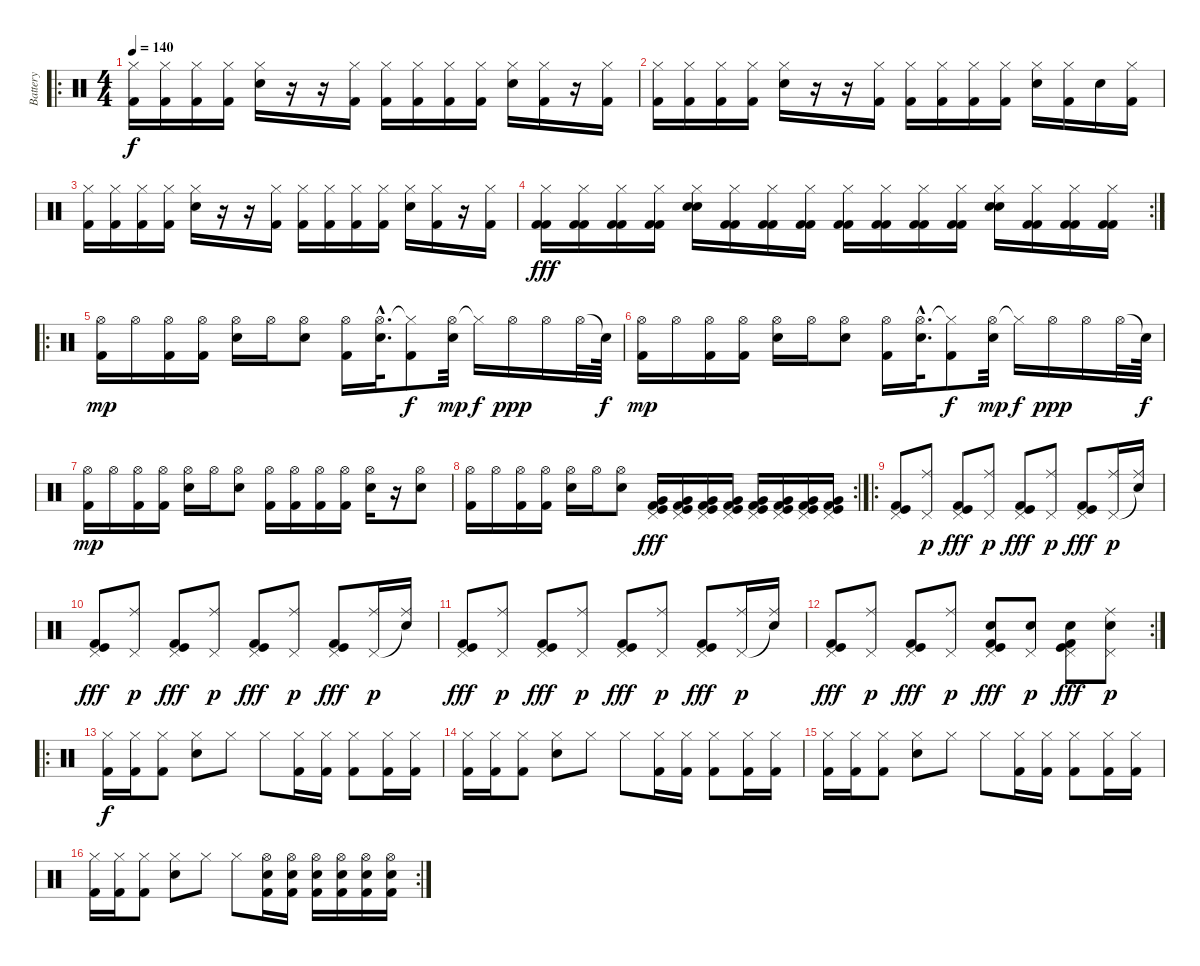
\track ("Battery" "Battery") {instrument percussion}
\staff {score}
\articulation defaults
\ro
\ts (4 4)
\tempo 140
\clef neutral
\ks c
("Hi-Hat (closed)" "Kick (hit) 2").16{dy f} ("Hi-Hat (closed)" "Kick (hit) 2").16 ("Hi-Hat (closed)" "Kick (hit) 2").16 ("Hi-Hat (closed)" "Kick (hit) 2").16 ("Hi-Hat (closed)" "Electric Snare (hit)").16 r.16 r.16 ("Hi-Hat (closed)" "Kick (hit) 2").16 ("Hi-Hat (closed)" "Kick (hit) 2").16 ("Hi-Hat (closed)" "Kick (hit) 2").16 ("Hi-Hat (closed)" "Kick (hit) 2").16 ("Hi-Hat (closed)" "Kick (hit) 2").16 ("Hi-Hat (closed)" "Electric Snare (hit)").16 ("Hi-Hat (closed)" "Kick (hit) 2").16 r.16 ("Hi-Hat (closed)" "Kick (hit) 2").16 |
("Hi-Hat (closed)" "Kick (hit) 2").16 ("Hi-Hat (closed)" "Kick (hit) 2").16 ("Hi-Hat (closed)" "Kick (hit) 2").16 ("Hi-Hat (closed)" "Kick (hit) 2").16 ("Hi-Hat (closed)" "Electric Snare (hit)").16 r.16 r.16 ("Hi-Hat (closed)" "Kick (hit) 2").16 ("Hi-Hat (closed)" "Kick (hit) 2").16 ("Hi-Hat (closed)" "Kick (hit) 2").16 ("Hi-Hat (closed)" "Kick (hit) 2").16 ("Hi-Hat (closed)" "Kick (hit) 2").16 ("Hi-Hat (closed)" "Electric Snare (hit)").16 ("Hi-Hat (closed)" "Kick (hit) 2").16 "Electric Snare (hit)".16 ("Hi-Hat (closed)" "Kick (hit) 2").16 |
("Hi-Hat (closed)" "Kick (hit) 2").16 ("Hi-Hat (closed)" "Kick (hit) 2").16 ("Hi-Hat (closed)" "Kick (hit) 2").16 ("Hi-Hat (closed)" "Kick (hit) 2").16 ("Hi-Hat (closed)" "Electric Snare (hit)").16 r.16 r.16 ("Hi-Hat (closed)" "Kick (hit) 2").16 ("Hi-Hat (closed)" "Kick (hit) 2").16 ("Hi-Hat (closed)" "Kick (hit) 2").16 ("Hi-Hat (closed)" "Kick (hit) 2").16 ("Hi-Hat (closed)" "Kick (hit) 2").16 ("Hi-Hat (closed)" "Electric Snare (hit)").16 ("Hi-Hat (closed)" "Kick (hit) 2").16 r.16 ("Hi-Hat (closed)" "Kick (hit) 2").16 |
\rc 2
("Hi-Hat (closed)" "Kick (hit) 2" "Kick (hit) 2").16{dy fff} ("Hi-Hat (closed)" "Kick (hit) 2" "Kick (hit) 2").16 ("Hi-Hat (closed)" "Kick (hit) 2" "Kick (hit) 2").16 ("Hi-Hat (closed)" "Kick (hit) 2" "Kick (hit) 2").16 ("Hi-Hat (closed)" "Electric Snare (hit)" "Electric Snare (hit)").16 ("Hi-Hat (closed)" "Kick (hit) 2" "Kick (hit) 2").16 ("Hi-Hat (closed)" "Kick (hit) 2" "Kick (hit) 2").16 ("Hi-Hat (closed)" "Kick (hit) 2" "Kick (hit) 2").16 ("Hi-Hat (closed)" "Kick (hit) 2" "Kick (hit) 2").16 ("Hi-Hat (closed)" "Kick (hit) 2" "Kick (hit) 2").16 ("Hi-Hat (closed)" "Kick (hit) 2" "Kick (hit) 2").16 ("Hi-Hat (closed)" "Kick (hit) 2" "Kick (hit) 2").16 ("Hi-Hat (closed)" "Electric Snare (hit)" "Electric Snare (hit)").16 ("Hi-Hat (closed)" "Kick (hit) 2" "Kick (hit) 2").16 ("Hi-Hat (closed)" "Kick (hit) 2" "Kick (hit) 2").16 ("Hi-Hat (closed)" "Kick (hit) 2" "Kick (hit) 2").16 |
\ro
("Hi-Hat (open)" "Kick (hit) 2").16{dy mp} "Hi-Hat (open)".16 ("Hi-Hat (open)" "Kick (hit) 2").16 ("Hi-Hat (open)" "Kick (hit) 2").16 ("Hi-Hat (open)" "Electric Snare (hit)").16 "Hi-Hat (open)".16 ("Hi-Hat (open)" "Electric Snare (hit)").8 ("Hi-Hat (open)" "Kick (hit) 2").16 ("Hi-Hat (open)"{hac} "Electric Snare (hit)"{hac}).32{d} ("Hi-Hat (closed)"{t} "Kick (hit) 2").8{dy f} ("Hi-Hat (open)" "Electric Snare (hit)").32{dy mp} "Hi-Hat (closed)"{t}.16{dy f} "Hi-Hat (open)".16{dy ppp} "Hi-Hat (open)".16 "Hi-Hat (open)".32 "Snare (hit)"{t}.64{dy f} |
("Hi-Hat (open)" "Kick (hit) 2").16{dy mp} "Hi-Hat (open)".16 ("Hi-Hat (open)" "Kick (hit) 2").16 ("Hi-Hat (open)" "Kick (hit) 2").16 ("Hi-Hat (open)" "Electric Snare (hit)").16 "Hi-Hat (open)".16 ("Hi-Hat (open)" "Electric Snare (hit)").8 ("Hi-Hat (open)" "Kick (hit) 2").16 ("Hi-Hat (open)"{hac} "Electric Snare (hit)"{hac}).32{d} ("Hi-Hat (closed)"{t} "Kick (hit) 2").8{dy f} ("Hi-Hat (open)" "Electric Snare (hit)").32{dy mp} "Hi-Hat (closed)"{t}.16{dy f} "Hi-Hat (open)".16{dy ppp} "Hi-Hat (open)".16 "Hi-Hat (open)".32 "Snare (hit)"{t}.64{dy f} |
("Hi-Hat (open)" "Kick (hit) 2").16{dy mp} "Hi-Hat (open)".16 ("Hi-Hat (open)" "Kick (hit) 2").16 ("Hi-Hat (open)" "Kick (hit) 2").16 ("Hi-Hat (open)" "Electric Snare (hit)").16 "Hi-Hat (open)".16 ("Hi-Hat (open)" "Electric Snare (hit)").8 ("Hi-Hat (open)" "Kick (hit) 2").16 ("Hi-Hat (open)" "Kick (hit) 2").16 ("Hi-Hat (open)" "Kick (hit) 2").16 ("Hi-Hat (open)" "Kick (hit) 2").16 ("Hi-Hat (open)" "Electric Snare (hit)").16 r.16 ("Hi-Hat (open)" "Electric Snare (hit)").8 |
\rc 2
("Hi-Hat (open)" "Kick (hit) 2").16 "Hi-Hat (open)".16 ("Hi-Hat (open)" "Kick (hit) 2").16 ("Hi-Hat (open)" "Kick (hit) 2").16 ("Hi-Hat (open)" "Electric Snare (hit)").16 "Hi-Hat (open)".16 ("Hi-Hat (open)" "Electric Snare (hit)").8 ("Pedal Hi-Hat (hit)" "Kick (hit) 2" "Kick (hit)" "Very Low Tom (hit)").16{dy fff} ("Pedal Hi-Hat (hit)" "Kick (hit) 2" "Kick (hit)" "Very Low Tom (hit)").16 ("Pedal Hi-Hat (hit)" "Kick (hit) 2" "Kick (hit)" "Very Low Tom (hit)").16 ("Pedal Hi-Hat (hit)" "Kick (hit) 2" "Kick (hit)" "Very Low Tom (hit)").16 ("Pedal Hi-Hat (hit)" "Kick (hit) 2" "Kick (hit)" "Very Low Tom (hit)").16 ("Pedal Hi-Hat (hit)" "Kick (hit) 2" "Kick (hit)" "Very Low Tom (hit)").16 ("Pedal Hi-Hat (hit)" "Kick (hit) 2" "Kick (hit)" "Very Low Tom (hit)").16 ("Pedal Hi-Hat (hit)" "Kick (hit) 2" "Kick (hit)" "Very Low Tom (hit)").16 |
\ro
("Pedal Hi-Hat (hit)" "Kick (hit)" "Kick (hit) 2").8 ("Ride (middle)" "Pedal Hi-Hat (hit)").8{dy p} ("Pedal Hi-Hat (hit)" "Kick (hit)" "Kick (hit) 2").8{dy fff} ("Ride (middle)" "Pedal Hi-Hat (hit)").8{dy p} ("Pedal Hi-Hat (hit)" "Kick (hit)" "Kick (hit) 2").8{dy fff} ("Ride (middle)" "Pedal Hi-Hat (hit)").8{dy p} ("Pedal Hi-Hat (hit)" "Kick (hit)" "Kick (hit) 2").8{dy fff} ("Ride (middle)" "Pedal Hi-Hat (hit)").16{dy p} ("Ride (middle)" "Snare (hit)"{t}).16 |
("Pedal Hi-Hat (hit)" "Kick (hit)" "Kick (hit) 2").8{dy fff} ("Ride (middle)" "Pedal Hi-Hat (hit)").8{dy p} ("Pedal Hi-Hat (hit)" "Kick (hit)" "Kick (hit) 2").8{dy fff} ("Ride (middle)" "Pedal Hi-Hat (hit)").8{dy p} ("Pedal Hi-Hat (hit)" "Kick (hit)" "Kick (hit) 2").8{dy fff} ("Ride (middle)" "Pedal Hi-Hat (hit)").8{dy p} ("Pedal Hi-Hat (hit)" "Kick (hit)" "Kick (hit) 2").8{dy fff} ("Ride (middle)" "Pedal Hi-Hat (hit)").16{dy p} ("Ride (middle)" "Snare (hit)"{t}).16 |
("Pedal Hi-Hat (hit)" "Kick (hit)" "Kick (hit) 2").8{dy fff} ("Ride (middle)" "Pedal Hi-Hat (hit)").8{dy p} ("Pedal Hi-Hat (hit)" "Kick (hit)" "Kick (hit) 2").8{dy fff} ("Ride (middle)" "Pedal Hi-Hat (hit)").8{dy p} ("Pedal Hi-Hat (hit)" "Kick (hit)" "Kick (hit) 2").8{dy fff} ("Ride (middle)" "Pedal Hi-Hat (hit)").8{dy p} ("Pedal Hi-Hat (hit)" "Kick (hit)" "Kick (hit) 2").8{dy fff} ("Ride (middle)" "Pedal Hi-Hat (hit)").16{dy p} ("Ride (middle)" "Snare (hit)"{t}).16 |
\rc 2
("Pedal Hi-Hat (hit)" "Kick (hit)" "Kick (hit) 2").8{dy fff} ("Ride (middle)" "Pedal Hi-Hat (hit)").8{dy p} ("Pedal Hi-Hat (hit)" "Kick (hit)" "Kick (hit) 2").8{dy fff} ("Ride (middle)" "Pedal Hi-Hat (hit)").8{dy p} ("Electric Snare (hit)" "Pedal Hi-Hat (hit)" "Kick (hit)" "Kick (hit) 2").8{dy fff} ("Electric Snare (hit)" "Pedal Hi-Hat (hit)").8{dy p} ("Electric Snare (hit)" "Pedal Hi-Hat (hit)" "Kick (hit)" "Kick (hit) 2").8{dy fff} ("Electric Snare (hit)" "Ride (middle)" "Pedal Hi-Hat (hit)").8{dy p} |
\ro
("Hi-Hat (closed)" "Kick (hit) 2").16{dy f} ("Hi-Hat (closed)" "Kick (hit) 2").16 ("Hi-Hat (closed)" "Kick (hit) 2").8 ("Hi-Hat (closed)" "Electric Snare (hit)").8 "Hi-Hat (closed)".8 "Hi-Hat (closed)".8 ("Hi-Hat (closed)" "Kick (hit) 2").16 ("Hi-Hat (closed)" "Kick (hit) 2").16 ("Hi-Hat (closed)" "Kick (hit) 2").8 ("Hi-Hat (closed)" "Kick (hit) 2").16 ("Hi-Hat (closed)" "Kick (hit) 2").16 |
("Hi-Hat (closed)" "Kick (hit) 2").16 ("Hi-Hat (closed)" "Kick (hit) 2").16 ("Hi-Hat (closed)" "Kick (hit) 2").8 ("Hi-Hat (closed)" "Electric Snare (hit)").8 "Hi-Hat (closed)".8 "Hi-Hat (closed)".8 ("Hi-Hat (closed)" "Kick (hit) 2").16 ("Hi-Hat (closed)" "Kick (hit) 2").16 ("Hi-Hat (closed)" "Kick (hit) 2").8 ("Hi-Hat (closed)" "Kick (hit) 2").16 ("Hi-Hat (closed)" "Kick (hit) 2").16 |
("Hi-Hat (closed)" "Kick (hit) 2").16 ("Hi-Hat (closed)" "Kick (hit) 2").16 ("Hi-Hat (closed)" "Kick (hit) 2").8 ("Hi-Hat (closed)" "Electric Snare (hit)").8 "Hi-Hat (closed)".8 "Hi-Hat (closed)".8 ("Hi-Hat (closed)" "Kick (hit) 2").16 ("Hi-Hat (closed)" "Kick (hit) 2").16 ("Hi-Hat (closed)" "Kick (hit) 2").8 ("Hi-Hat (closed)" "Kick (hit) 2").16 ("Hi-Hat (closed)" "Kick (hit) 2").16 |
\rc 2
("Hi-Hat (closed)" "Kick (hit) 2").16 ("Hi-Hat (closed)" "Kick (hit) 2").16 ("Hi-Hat (closed)" "Kick (hit) 2").8 ("Hi-Hat (closed)" "Electric Snare (hit)").8 "Hi-Hat (closed)".8 "Hi-Hat (closed)".8 ("Hi-Hat (open)" "Electric Snare (hit)" "Kick (hit) 2").16 ("Hi-Hat (open)" "Electric Snare (hit)" "Kick (hit) 2").16 ("Hi-Hat (open)" "Electric Snare (hit)" "Kick (hit) 2").16 ("Hi-Hat (open)" "Electric Snare (hit)" "Kick (hit) 2").16 ("Hi-Hat (open)" "Electric Snare (hit)" "Kick (hit) 2").16 ("Hi-Hat (open)" "Electric Snare (hit)" "Kick (hit) 2").16
